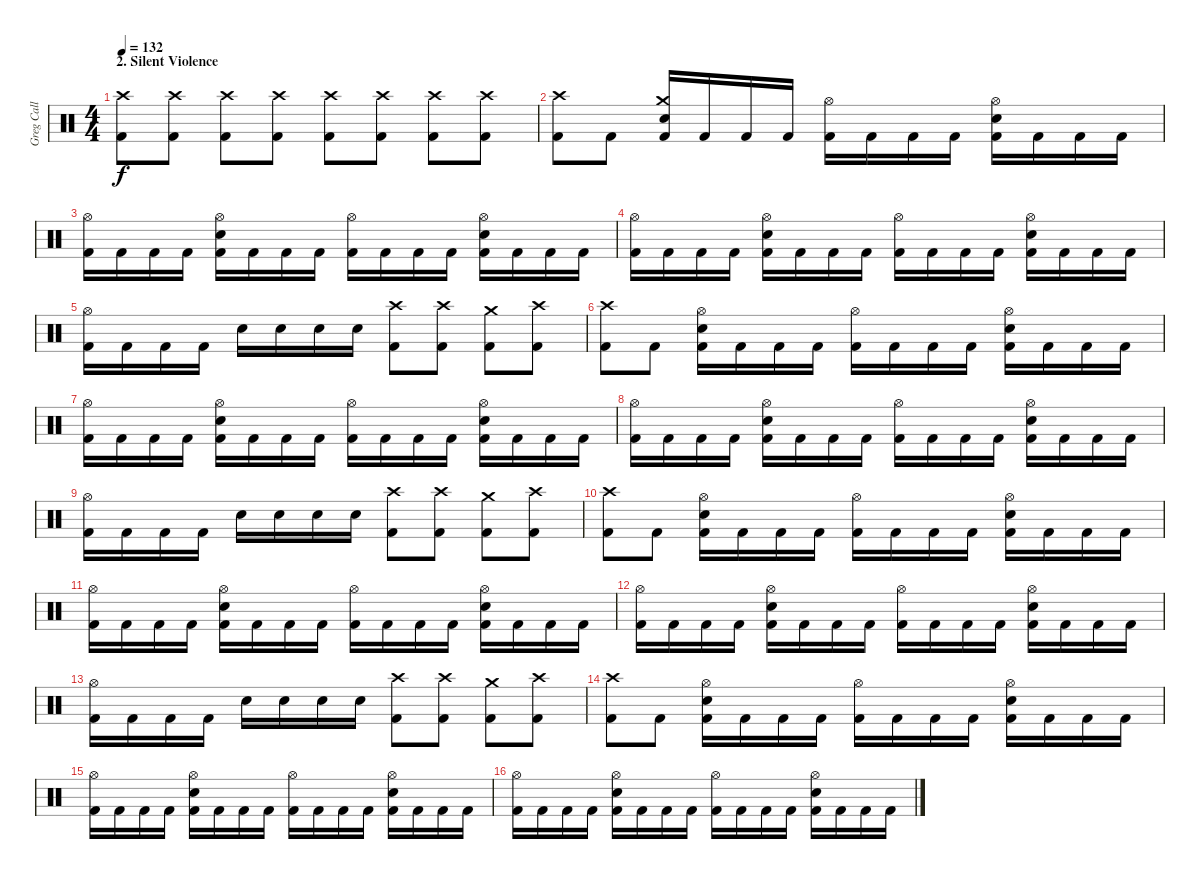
\track ("Greg Call (Drums)" "Greg Call ") {instrument percussion}
\staff {score}
\articulation defaults
\ts (4 4)
\section ("" "2. Silent Violence")
\tempo 132
\clef neutral
\ks c
("Crash high (hit)" "Kick (hit) 2").8{dy f} ("Crash high (hit)" "Kick (hit) 2").8 ("Crash high (hit)" "Kick (hit) 2").8 ("Crash high (hit)" "Kick (hit) 2").8 ("Crash high (hit)" "Kick (hit) 2").8 ("Crash high (hit)" "Kick (hit) 2").8 ("Crash high (hit)" "Kick (hit) 2").8 ("Crash high (hit)" "Kick (hit) 2").8 |
("Crash high (hit)" "Kick (hit) 2").8 "Kick (hit) 2".8 ("Crash medium (hit)" "Snare (hit) 2" "Kick (hit) 2").16 "Kick (hit) 2".16 "Kick (hit) 2".16 "Kick (hit) 2".16 ("Hi-Hat (open)" "Kick (hit) 2").16 "Kick (hit) 2".16 "Kick (hit) 2".16 "Kick (hit) 2".16 ("Hi-Hat (open)" "Snare (hit) 2" "Kick (hit) 2").16 "Kick (hit) 2".16 "Kick (hit) 2".16 "Kick (hit) 2".16 |
("Hi-Hat (open)" "Kick (hit) 2").16 "Kick (hit) 2".16 "Kick (hit) 2".16 "Kick (hit) 2".16 ("Hi-Hat (open)" "Snare (hit) 2" "Kick (hit) 2").16 "Kick (hit) 2".16 "Kick (hit) 2".16 "Kick (hit) 2".16 ("Hi-Hat (open)" "Kick (hit) 2").16 "Kick (hit) 2".16 "Kick (hit) 2".16 "Kick (hit) 2".16 ("Hi-Hat (open)" "Snare (hit) 2" "Kick (hit) 2").16 "Kick (hit) 2".16 "Kick (hit) 2".16 "Kick (hit) 2".16 |
("Hi-Hat (open)" "Kick (hit) 2").16 "Kick (hit) 2".16 "Kick (hit) 2".16 "Kick (hit) 2".16 ("Hi-Hat (open)" "Snare (hit) 2" "Kick (hit) 2").16 "Kick (hit) 2".16 "Kick (hit) 2".16 "Kick (hit) 2".16 ("Hi-Hat (open)" "Kick (hit) 2").16 "Kick (hit) 2".16 "Kick (hit) 2".16 "Kick (hit) 2".16 ("Hi-Hat (open)" "Snare (hit) 2" "Kick (hit) 2").16 "Kick (hit) 2".16 "Kick (hit) 2".16 "Kick (hit) 2".16 |
("Hi-Hat (open)" "Kick (hit) 2").16 "Kick (hit) 2".16 "Kick (hit) 2".16 "Kick (hit) 2".16 "Snare (hit) 2".16 "Snare (hit) 2".16 "Snare (hit) 2".16 "Snare (hit) 2".16 ("Crash high (hit)" "Kick (hit) 2").8 ("Crash high (hit)" "Kick (hit) 2").8 ("Crash medium (hit)" "Kick (hit) 2").8 ("Crash high (hit)" "Kick (hit) 2").8 |
("Crash high (hit)" "Kick (hit) 2").8 "Kick (hit) 2".8 ("Hi-Hat (open)" "Snare (hit) 2" "Kick (hit) 2").16 "Kick (hit) 2".16 "Kick (hit) 2".16 "Kick (hit) 2".16 ("Hi-Hat (open)" "Kick (hit) 2").16 "Kick (hit) 2".16 "Kick (hit) 2".16 "Kick (hit) 2".16 ("Hi-Hat (open)" "Snare (hit) 2" "Kick (hit) 2").16 "Kick (hit) 2".16 "Kick (hit) 2".16 "Kick (hit) 2".16 |
("Hi-Hat (open)" "Kick (hit) 2").16 "Kick (hit) 2".16 "Kick (hit) 2".16 "Kick (hit) 2".16 ("Hi-Hat (open)" "Snare (hit) 2" "Kick (hit) 2").16 "Kick (hit) 2".16 "Kick (hit) 2".16 "Kick (hit) 2".16 ("Hi-Hat (open)" "Kick (hit) 2").16 "Kick (hit) 2".16 "Kick (hit) 2".16 "Kick (hit) 2".16 ("Hi-Hat (open)" "Snare (hit) 2" "Kick (hit) 2").16 "Kick (hit) 2".16 "Kick (hit) 2".16 "Kick (hit) 2".16 |
("Hi-Hat (open)" "Kick (hit) 2").16 "Kick (hit) 2".16 "Kick (hit) 2".16 "Kick (hit) 2".16 ("Hi-Hat (open)" "Snare (hit) 2" "Kick (hit) 2").16 "Kick (hit) 2".16 "Kick (hit) 2".16 "Kick (hit) 2".16 ("Hi-Hat (open)" "Kick (hit) 2").16 "Kick (hit) 2".16 "Kick (hit) 2".16 "Kick (hit) 2".16 ("Hi-Hat (open)" "Snare (hit) 2" "Kick (hit) 2").16 "Kick (hit) 2".16 "Kick (hit) 2".16 "Kick (hit) 2".16 |
("Hi-Hat (open)" "Kick (hit) 2").16 "Kick (hit) 2".16 "Kick (hit) 2".16 "Kick (hit) 2".16 "Snare (hit) 2".16 "Snare (hit) 2".16 "Snare (hit) 2".16 "Snare (hit) 2".16 ("Crash high (hit)" "Kick (hit) 2").8 ("Crash high (hit)" "Kick (hit) 2").8 ("Crash medium (hit)" "Kick (hit) 2").8 ("Crash high (hit)" "Kick (hit) 2").8 |
("Crash high (hit)" "Kick (hit) 2").8 "Kick (hit) 2".8 ("Hi-Hat (open)" "Snare (hit) 2" "Kick (hit) 2").16 "Kick (hit) 2".16 "Kick (hit) 2".16 "Kick (hit) 2".16 ("Hi-Hat (open)" "Kick (hit) 2").16 "Kick (hit) 2".16 "Kick (hit) 2".16 "Kick (hit) 2".16 ("Hi-Hat (open)" "Snare (hit) 2" "Kick (hit) 2").16 "Kick (hit) 2".16 "Kick (hit) 2".16 "Kick (hit) 2".16 |
("Hi-Hat (open)" "Kick (hit) 2").16 "Kick (hit) 2".16 "Kick (hit) 2".16 "Kick (hit) 2".16 ("Hi-Hat (open)" "Snare (hit) 2" "Kick (hit) 2").16 "Kick (hit) 2".16 "Kick (hit) 2".16 "Kick (hit) 2".16 ("Hi-Hat (open)" "Kick (hit) 2").16 "Kick (hit) 2".16 "Kick (hit) 2".16 "Kick (hit) 2".16 ("Hi-Hat (open)" "Snare (hit) 2" "Kick (hit) 2").16 "Kick (hit) 2".16 "Kick (hit) 2".16 "Kick (hit) 2".16 |
("Hi-Hat (open)" "Kick (hit) 2").16 "Kick (hit) 2".16 "Kick (hit) 2".16 "Kick (hit) 2".16 ("Hi-Hat (open)" "Snare (hit) 2" "Kick (hit) 2").16 "Kick (hit) 2".16 "Kick (hit) 2".16 "Kick (hit) 2".16 ("Hi-Hat (open)" "Kick (hit) 2").16 "Kick (hit) 2".16 "Kick (hit) 2".16 "Kick (hit) 2".16 ("Hi-Hat (open)" "Snare (hit) 2" "Kick (hit) 2").16 "Kick (hit) 2".16 "Kick (hit) 2".16 "Kick (hit) 2".16 |
("Hi-Hat (open)" "Kick (hit) 2").16 "Kick (hit) 2".16 "Kick (hit) 2".16 "Kick (hit) 2".16 "Snare (hit) 2".16 "Snare (hit) 2".16 "Snare (hit) 2".16 "Snare (hit) 2".16 ("Crash high (hit)" "Kick (hit) 2").8 ("Crash high (hit)" "Kick (hit) 2").8 ("Crash medium (hit)" "Kick (hit) 2").8 ("Crash high (hit)" "Kick (hit) 2").8 |
("Crash high (hit)" "Kick (hit) 2").8 "Kick (hit) 2".8 ("Hi-Hat (open)" "Snare (hit) 2" "Kick (hit) 2").16 "Kick (hit) 2".16 "Kick (hit) 2".16 "Kick (hit) 2".16 ("Hi-Hat (open)" "Kick (hit) 2").16 "Kick (hit) 2".16 "Kick (hit) 2".16 "Kick (hit) 2".16 ("Hi-Hat (open)" "Snare (hit) 2" "Kick (hit) 2").16 "Kick (hit) 2".16 "Kick (hit) 2".16 "Kick (hit) 2".16 |
("Hi-Hat (open)" "Kick (hit) 2").16 "Kick (hit) 2".16 "Kick (hit) 2".16 "Kick (hit) 2".16 ("Hi-Hat (open)" "Snare (hit) 2" "Kick (hit) 2").16 "Kick (hit) 2".16 "Kick (hit) 2".16 "Kick (hit) 2".16 ("Hi-Hat (open)" "Kick (hit) 2").16 "Kick (hit) 2".16 "Kick (hit) 2".16 "Kick (hit) 2".16 ("Hi-Hat (open)" "Snare (hit) 2" "Kick (hit) 2").16 "Kick (hit) 2".16 "Kick (hit) 2".16 "Kick (hit) 2".16 |
("Hi-Hat (open)" "Kick (hit) 2").16 "Kick (hit) 2".16 "Kick (hit) 2".16 "Kick (hit) 2".16 ("Hi-Hat (open)" "Snare (hit) 2" "Kick (hit) 2").16 "Kick (hit) 2".16 "Kick (hit) 2".16 "Kick (hit) 2".16 ("Hi-Hat (open)" "Kick (hit) 2").16 "Kick (hit) 2".16 "Kick (hit) 2".16 "Kick (hit) 2".16 ("Hi-Hat (open)" "Snare (hit) 2" "Kick (hit) 2").16 "Kick (hit) 2".16 "Kick (hit) 2".16 "Kick (hit) 2".16
